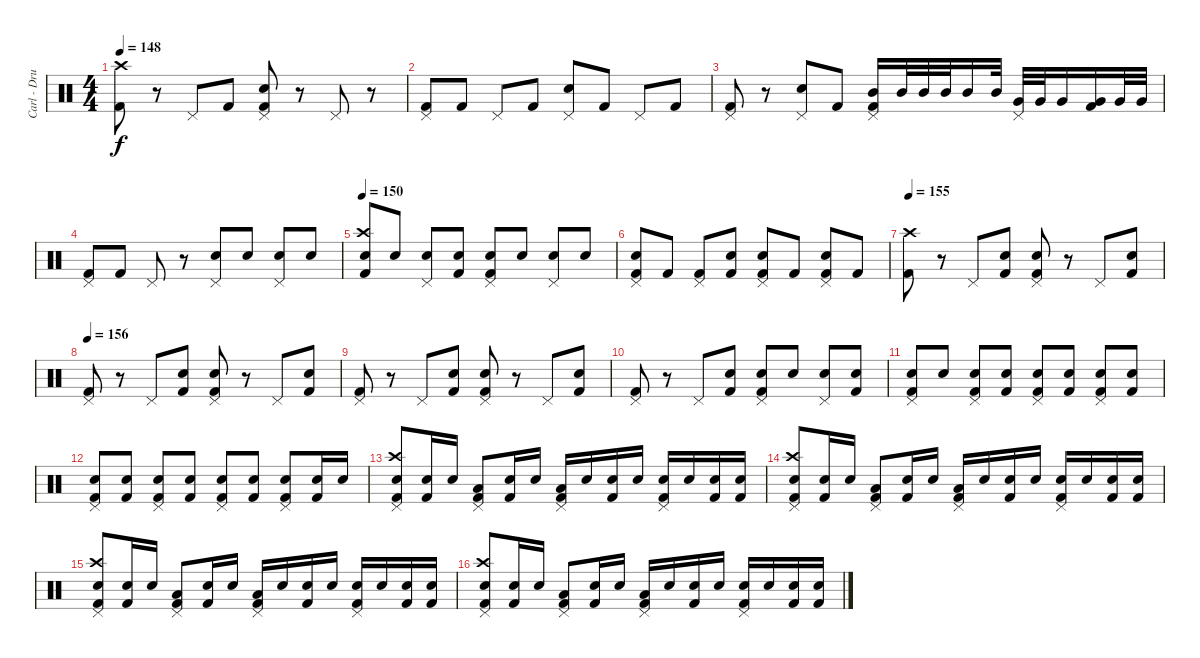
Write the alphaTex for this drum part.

\track ("Carl - Drums" "Carl - Dru") {instrument percussion}
\staff {score}
\articulation defaults
\ts (4 4)
\tempo 148
\clef neutral
\ks c
("Kick (hit) 2" "Crash high (hit)").8{dy f} r.8 "Pedal Hi-Hat (hit)".8 "Kick (hit) 2".8 ("Electric Snare (hit)" "Pedal Hi-Hat (hit)" "Kick (hit) 2").8 r.8 "Pedal Hi-Hat (hit)".8 r.8 |
("Pedal Hi-Hat (hit)" "Kick (hit) 2").8 "Kick (hit) 2".8 "Pedal Hi-Hat (hit)".8 "Kick (hit) 2".8 ("Electric Snare (hit)" "Pedal Hi-Hat (hit)").8 "Kick (hit) 2".8 "Pedal Hi-Hat (hit)".8 "Kick (hit) 2".8 |
("Pedal Hi-Hat (hit)" "Kick (hit) 2").8 r.8 ("Electric Snare (hit)" "Pedal Hi-Hat (hit)").8 "Kick (hit) 2".8 ("Mid Tom (hit)" "Pedal Hi-Hat (hit)" "Kick (hit) 2").16 "Mid Tom (hit)".32 "Mid Tom (hit)".32 "Mid Tom (hit)".32 "Mid Tom (hit)".16 "Mid Tom (hit)".32 ("Very Low Tom (hit)" "Pedal Hi-Hat (hit)").32 "Very Low Tom (hit)".32 "Very Low Tom (hit)".16 ("Very Low Tom (hit)" "Kick (hit) 2").16 "Very Low Tom (hit)".32 "Very Low Tom (hit)".32 |
("Pedal Hi-Hat (hit)" "Kick (hit) 2").8 "Kick (hit) 2".8 "Pedal Hi-Hat (hit)".8 r.8 ("Electric Snare (hit)" "Pedal Hi-Hat (hit)").8 "Electric Snare (hit)".8 ("Electric Snare (hit)" "Pedal Hi-Hat (hit)").8 "Electric Snare (hit)".8 |
\tempo 150
("Electric Snare (hit)" "Kick (hit) 2" "Crash high (hit)").8 "Electric Snare (hit)".8 ("Electric Snare (hit)" "Pedal Hi-Hat (hit)").8 ("Electric Snare (hit)" "Kick (hit) 2").8 ("Electric Snare (hit)" "Pedal Hi-Hat (hit)" "Kick (hit) 2").8 "Electric Snare (hit)".8 ("Electric Snare (hit)" "Pedal Hi-Hat (hit)").8 "Electric Snare (hit)".8 |
("Electric Snare (hit)" "Pedal Hi-Hat (hit)" "Kick (hit) 2").8 "Kick (hit) 2".8 ("Pedal Hi-Hat (hit)" "Kick (hit) 2").8 ("Electric Snare (hit)" "Kick (hit) 2").8 ("Electric Snare (hit)" "Pedal Hi-Hat (hit)" "Kick (hit) 2").8 "Kick (hit) 2".8 ("Electric Snare (hit)" "Pedal Hi-Hat (hit)" "Kick (hit) 2").8 "Kick (hit) 2".8 |
\tempo 153
\tempo 155
("Kick (hit) 2" "Crash high (hit)").8 r.8 "Pedal Hi-Hat (hit)".8 ("Electric Snare (hit)" "Kick (hit) 2").8 ("Electric Snare (hit)" "Pedal Hi-Hat (hit)" "Kick (hit) 2").8 r.8 "Pedal Hi-Hat (hit)".8 ("Electric Snare (hit)" "Kick (hit) 2").8 |
\tempo 156
("Pedal Hi-Hat (hit)" "Kick (hit) 2").8 r.8 "Pedal Hi-Hat (hit)".8 ("Electric Snare (hit)" "Kick (hit) 2").8 ("Electric Snare (hit)" "Pedal Hi-Hat (hit)" "Kick (hit) 2").8 r.8 "Pedal Hi-Hat (hit)".8 ("Electric Snare (hit)" "Kick (hit) 2").8 |
("Pedal Hi-Hat (hit)" "Kick (hit) 2").8 r.8 "Pedal Hi-Hat (hit)".8 ("Electric Snare (hit)" "Kick (hit) 2").8 ("Electric Snare (hit)" "Pedal Hi-Hat (hit)" "Kick (hit) 2").8 r.8 "Pedal Hi-Hat (hit)".8 ("Electric Snare (hit)" "Kick (hit) 2").8 |
("Pedal Hi-Hat (hit)" "Kick (hit) 2").8 r.8 "Pedal Hi-Hat (hit)".8 ("Electric Snare (hit)" "Kick (hit) 2").8 ("Electric Snare (hit)" "Pedal Hi-Hat (hit)" "Kick (hit) 2").8 "Electric Snare (hit)".8 ("Electric Snare (hit)" "Pedal Hi-Hat (hit)").8 ("Electric Snare (hit)" "Kick (hit) 2").8 |
("Electric Snare (hit)" "Pedal Hi-Hat (hit)" "Kick (hit) 2").8 "Electric Snare (hit)".8 ("Electric Snare (hit)" "Pedal Hi-Hat (hit)" "Kick (hit) 2").8 ("Electric Snare (hit)" "Kick (hit) 2").8 ("Electric Snare (hit)" "Pedal Hi-Hat (hit)" "Kick (hit) 2").8 ("Electric Snare (hit)" "Kick (hit) 2").8 ("Electric Snare (hit)" "Pedal Hi-Hat (hit)" "Kick (hit) 2").8 ("Electric Snare (hit)" "Kick (hit) 2").8 |
("Electric Snare (hit)" "Pedal Hi-Hat (hit)" "Kick (hit) 2").8 ("Electric Snare (hit)" "Kick (hit) 2").8 ("Electric Snare (hit)" "Pedal Hi-Hat (hit)" "Kick (hit) 2").8 ("Electric Snare (hit)" "Kick (hit) 2").8 ("Electric Snare (hit)" "Pedal Hi-Hat (hit)" "Kick (hit) 2").8 ("Electric Snare (hit)" "Kick (hit) 2").8 ("Electric Snare (hit)" "Pedal Hi-Hat (hit)" "Kick (hit) 2").8 ("Electric Snare (hit)" "Kick (hit) 2").16 "Electric Snare (hit)".16 |
("Electric Snare (hit)" "Pedal Hi-Hat (hit)" "Kick (hit) 2" "Crash high (hit)").8 ("Electric Snare (hit)" "Kick (hit) 2").16 "Electric Snare (hit)".16 ("Low Floor Tom (hit)" "Pedal Hi-Hat (hit)" "Kick (hit) 2").8 ("Electric Snare (hit)" "Kick (hit) 2").16 "Electric Snare (hit)".16 ("Low Floor Tom (hit)" "Pedal Hi-Hat (hit)" "Kick (hit) 2").16 "Electric Snare (hit)".16 ("Electric Snare (hit)" "Kick (hit) 2").16 "Electric Snare (hit)".16 ("Electric Snare (hit)" "Pedal Hi-Hat (hit)" "Kick (hit) 2").16 "Electric Snare (hit)".16 ("Electric Snare (hit)" "Kick (hit) 2").16 ("Electric Snare (hit)" "Kick (hit) 2").16 |
("Electric Snare (hit)" "Pedal Hi-Hat (hit)" "Kick (hit) 2" "Crash high (hit)").8 ("Electric Snare (hit)" "Kick (hit) 2").16 "Electric Snare (hit)".16 ("Low Floor Tom (hit)" "Pedal Hi-Hat (hit)" "Kick (hit) 2").8 ("Electric Snare (hit)" "Kick (hit) 2").16 "Electric Snare (hit)".16 ("Low Floor Tom (hit)" "Pedal Hi-Hat (hit)" "Kick (hit) 2").16 "Electric Snare (hit)".16 ("Electric Snare (hit)" "Kick (hit) 2").16 "Electric Snare (hit)".16 ("Electric Snare (hit)" "Pedal Hi-Hat (hit)" "Kick (hit) 2").16 "Electric Snare (hit)".16 ("Electric Snare (hit)" "Kick (hit) 2").16 ("Electric Snare (hit)" "Kick (hit) 2").16 |
("Electric Snare (hit)" "Pedal Hi-Hat (hit)" "Kick (hit) 2" "Crash high (hit)").8 ("Electric Snare (hit)" "Kick (hit) 2").16 "Electric Snare (hit)".16 ("Low Floor Tom (hit)" "Pedal Hi-Hat (hit)" "Kick (hit) 2").8 ("Electric Snare (hit)" "Kick (hit) 2").16 "Electric Snare (hit)".16 ("Low Floor Tom (hit)" "Pedal Hi-Hat (hit)" "Kick (hit) 2").16 "Electric Snare (hit)".16 ("Electric Snare (hit)" "Kick (hit) 2").16 "Electric Snare (hit)".16 ("Electric Snare (hit)" "Pedal Hi-Hat (hit)" "Kick (hit) 2").16 "Electric Snare (hit)".16 ("Electric Snare (hit)" "Kick (hit) 2").16 ("Electric Snare (hit)" "Kick (hit) 2").16 |
("Electric Snare (hit)" "Pedal Hi-Hat (hit)" "Kick (hit) 2" "Crash high (hit)").8 ("Electric Snare (hit)" "Kick (hit) 2").16 "Electric Snare (hit)".16 ("Low Floor Tom (hit)" "Pedal Hi-Hat (hit)" "Kick (hit) 2").8 ("Electric Snare (hit)" "Kick (hit) 2").16 "Electric Snare (hit)".16 ("Low Floor Tom (hit)" "Pedal Hi-Hat (hit)" "Kick (hit) 2").16 "Electric Snare (hit)".16 ("Electric Snare (hit)" "Kick (hit) 2").16 "Electric Snare (hit)".16 ("Electric Snare (hit)" "Pedal Hi-Hat (hit)" "Kick (hit) 2").16 "Electric Snare (hit)".16 ("Electric Snare (hit)" "Kick (hit) 2").16 ("Electric Snare (hit)" "Kick (hit) 2").16
